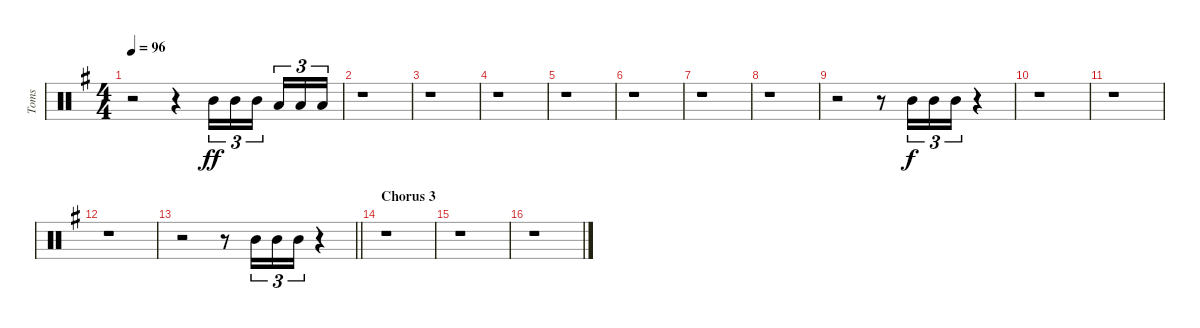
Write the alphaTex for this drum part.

\track ("Toms" "Toms") {instrument percussion}
\staff {score}
\articulation defaults
\ts (4 4)
\tempo 96
\clef neutral
\ks g
r.2{dy f} r.4 "Mid Tom (hit)".16{tu (3 2) dy ff balance 8} "Mid Tom (hit)".16{tu (3 2)} "Mid Tom (hit)".16{tu (3 2) beam splitsecondary} "Low Tom (hit)".16{tu (3 2) balance 5} "Low Tom (hit)".16{tu (3 2)} "Low Tom (hit)".16{tu (3 2)} |
r.1 |
r.1 |
r.1 |
r.1 |
r.1 |
r.1 |
r.1 |
r.2 r.8 "Mid Tom (hit)".16{tu (3 2) dy f balance 7} "Mid Tom (hit)".16{tu (3 2)} "Mid Tom (hit)".16{tu (3 2)} r.4 |
r.1 |
r.1 |
r.1 |
\barLineRight lightlight
r.2 r.8 "Mid Tom (hit)".16{tu (3 2)} "Mid Tom (hit)".16{tu (3 2)} "Mid Tom (hit)".16{tu (3 2)} r.4 |
\section ("" "Chorus 3")
r.1 |
r.1 |
r.1
